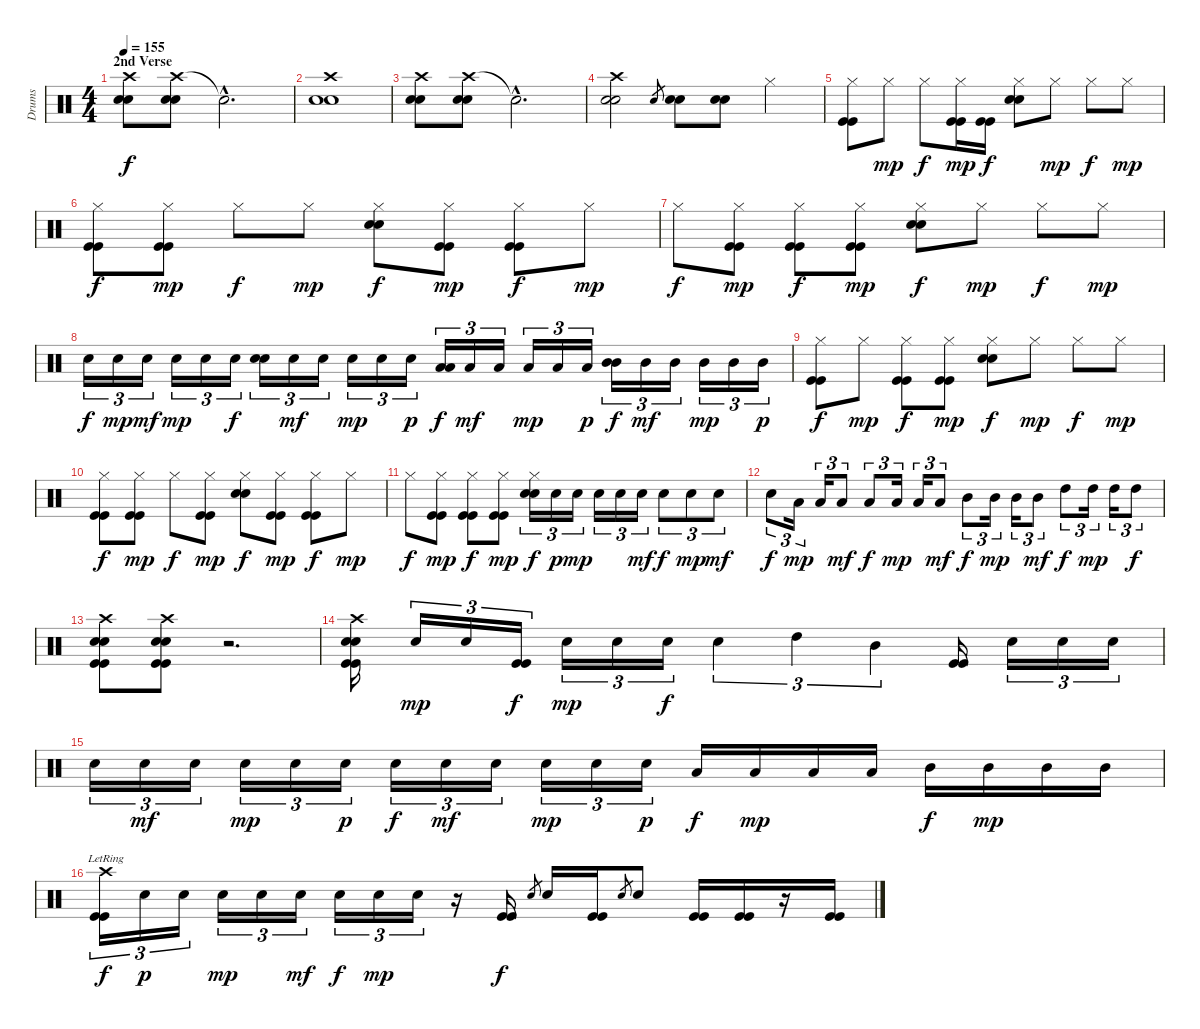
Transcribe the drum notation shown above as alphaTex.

\track ("Drums" "Drums") {instrument percussion}
\staff {score}
\articulation defaults
\ts (4 4)
\section ("" "2nd Verse")
\tempo 155
\clef neutral
\ks c
("Crash high (hit)" "Snare (hit) 2" "Snare (hit) 2").8{dy f} ("Crash high (hit)" "Snare (hit) 2" "Snare (hit) 2").8 "Snare (hit)"{hac t}.2{d} |
("Crash high (hit)" "Snare (hit) 2" "Snare (hit) 2").1 |
("Crash high (hit)" "Snare (hit) 2" "Snare (hit) 2").8 ("Crash high (hit)" "Snare (hit) 2" "Snare (hit) 2").8 "Snare (hit)"{hac t}.2{d} |
("Crash high (hit)" "Snare (hit) 2" "Snare (hit) 2").2 "Snare (hit) 2".8{gr} ("Snare (hit) 2" "Snare (hit) 2").8 ("Snare (hit) 2" "Snare (hit) 2").8 "Hi-Hat (closed)".4 |
("Hi-Hat (closed)" "Kick (hit)" "Kick (hit)").8 "Hi-Hat (closed)".8{dy mp} "Hi-Hat (closed)".8{dy f} ("Hi-Hat (closed)" "Kick (hit)" "Kick (hit)").16{dy mp} ("Kick (hit)" "Kick (hit)").16{dy f} ("Hi-Hat (closed)" "Snare (hit) 2" "Snare (hit) 2").8 "Hi-Hat (closed)".8{dy mp} "Hi-Hat (closed)".8{dy f} "Hi-Hat (closed)".8{dy mp} |
("Hi-Hat (closed)" "Kick (hit)" "Kick (hit)").8{dy f} ("Hi-Hat (closed)" "Kick (hit)" "Kick (hit)").8{dy mp} "Hi-Hat (closed)".8{dy f} "Hi-Hat (closed)".8{dy mp} ("Hi-Hat (closed)" "Snare (hit) 2" "Snare (hit) 2").8{dy f} ("Hi-Hat (closed)" "Kick (hit)" "Kick (hit)").8{dy mp} ("Hi-Hat (closed)" "Kick (hit)" "Kick (hit)").8{dy f} "Hi-Hat (closed)".8{dy mp} |
"Hi-Hat (closed)".8{dy f} ("Hi-Hat (closed)" "Kick (hit)" "Kick (hit)").8{dy mp} ("Hi-Hat (closed)" "Kick (hit)" "Kick (hit)").8{dy f} ("Hi-Hat (closed)" "Kick (hit)" "Kick (hit)").8{dy mp} ("Hi-Hat (closed)" "Snare (hit) 2" "Snare (hit) 2").8{dy f} "Hi-Hat (closed)".8{dy mp} "Hi-Hat (closed)".8{dy f} "Hi-Hat (closed)".8{dy mp} |
"Snare (hit) 2".16{tu (3 2) dy f} "Snare (hit) 2".16{tu (3 2) dy mp} "Snare (hit) 2".16{tu (3 2) dy mf} "Snare (hit) 2".16{tu (3 2) dy mp} "Snare (hit) 2".16{tu (3 2)} "Snare (hit) 2".16{tu (3 2) dy f} ("Snare (hit) 2" "Snare (hit) 2").16{tu (3 2)} "Snare (hit) 2".16{tu (3 2) dy mf} "Snare (hit) 2".16{tu (3 2)} "Snare (hit) 2".16{tu (3 2) dy mp} "Snare (hit) 2".16{tu (3 2)} "Snare (hit) 2".16{tu (3 2) dy p} ("Low Tom (hit)" "Low Tom (hit)").16{tu (3 2) dy f} "Low Tom (hit)".16{tu (3 2) dy mf} "Low Tom (hit)".16{tu (3 2)} "Low Tom (hit)".16{tu (3 2) dy mp} "Low Tom (hit)".16{tu (3 2)} "Low Tom (hit)".16{tu (3 2) dy p} ("Mid Tom (hit)" "Mid Tom (hit)").16{tu (3 2) dy f} "Mid Tom (hit)".16{tu (3 2) dy mf} "Mid Tom (hit)".16{tu (3 2)} "Mid Tom (hit)".16{tu (3 2) dy mp} "Mid Tom (hit)".16{tu (3 2)} "Mid Tom (hit)".16{tu (3 2) dy p} |
("Hi-Hat (closed)" "Kick (hit)" "Kick (hit)").8{dy f} "Hi-Hat (closed)".8{dy mp} ("Hi-Hat (closed)" "Kick (hit)" "Kick (hit)").8{dy f} ("Hi-Hat (closed)" "Kick (hit)" "Kick (hit)").8{dy mp} ("Hi-Hat (closed)" "Snare (hit) 2" "Snare (hit) 2").8{dy f} "Hi-Hat (closed)".8{dy mp} "Hi-Hat (closed)".8{dy f} "Hi-Hat (closed)".8{dy mp} |
("Hi-Hat (closed)" "Kick (hit)" "Kick (hit)").8{dy f} ("Hi-Hat (closed)" "Kick (hit)" "Kick (hit)").8{dy mp} "Hi-Hat (closed)".8{dy f} ("Hi-Hat (closed)" "Kick (hit)" "Kick (hit)").8{dy mp} ("Hi-Hat (closed)" "Snare (hit) 2" "Snare (hit) 2").8{dy f} ("Hi-Hat (closed)" "Kick (hit)" "Kick (hit)").8{dy mp} ("Hi-Hat (closed)" "Kick (hit)" "Kick (hit)").8{dy f} "Hi-Hat (closed)".8{dy mp} |
"Hi-Hat (closed)".8{dy f} ("Hi-Hat (closed)" "Kick (hit)" "Kick (hit)").8{dy mp} ("Hi-Hat (closed)" "Kick (hit)" "Kick (hit)").8{dy f} ("Hi-Hat (closed)" "Kick (hit)" "Kick (hit)").8{dy mp} ("Hi-Hat (closed)" "Snare (hit) 2" "Snare (hit) 2").16{tu (3 2) dy f} "Snare (hit) 2".16{tu (3 2) dy p} "Snare (hit) 2".16{tu (3 2) dy mp} "Snare (hit) 2".16{tu (3 2)} "Snare (hit) 2".16{tu (3 2)} "Snare (hit) 2".16{tu (3 2) dy mf} "Snare (hit) 2".8{tu (3 2) dy f} "Snare (hit) 2".8{tu (3 2) dy mp} "Snare (hit) 2".8{tu (3 2) dy mf} |
"Snare (hit) 2".8{tu (3 2) dy f} "Low Tom (hit)".16{tu (3 2) dy mp} "Low Tom (hit)".16{tu (3 2)} "Low Tom (hit)".8{tu (3 2) dy mf} "Low Tom (hit)".8{tu (3 2) dy f} "Low Tom (hit)".16{tu (3 2) dy mp} "Low Tom (hit)".16{tu (3 2)} "Low Tom (hit)".8{tu (3 2) dy mf} "Mid Tom (hit)".8{tu (3 2) dy f} "Mid Tom (hit)".16{tu (3 2) dy mp} "Mid Tom (hit)".16{tu (3 2)} "Mid Tom (hit)".8{tu (3 2) dy mf} "High Tom (hit)".8{tu (3 2) dy f} "High Tom (hit)".16{tu (3 2) dy mp} "High Tom (hit)".16{tu (3 2)} "High Tom (hit)".8{tu (3 2) dy f} |
("Crash high (hit)" "Snare (hit) 2" "Snare (hit) 2" "Kick (hit)" "Kick (hit)").8 ("Crash high (hit)" "Snare (hit) 2" "Snare (hit) 2" "Kick (hit)" "Kick (hit)").8 r.2{d} |
("Crash high (hit)" "Snare (hit) 2" "Snare (hit) 2" "Kick (hit)" "Kick (hit)").16 "Snare (hit) 2".16{tu (3 2) dy mp} "Snare (hit) 2".16{tu (3 2)} ("Kick (hit)" "Kick (hit)").16{tu (3 2) dy f} "Snare (hit) 2".16{tu (3 2) dy mp} "Snare (hit) 2".16{tu (3 2)} "Snare (hit) 2".16{tu (3 2) dy f} "Snare (hit) 2".4{tu (3 2)} "High Tom (hit)".4{tu (3 2)} "Mid Tom (hit)".4{tu (3 2)} ("Kick (hit)" "Kick (hit)").16 "Snare (hit) 2".16{tu (3 2)} "Snare (hit) 2".16{tu (3 2)} "Snare (hit) 2".16{tu (3 2)} |
"Snare (hit) 2".16{tu (3 2)} "Snare (hit) 2".16{tu (3 2) dy mf} "Snare (hit) 2".16{tu (3 2)} "Snare (hit) 2".16{tu (3 2) dy mp} "Snare (hit) 2".16{tu (3 2)} "Snare (hit) 2".16{tu (3 2) dy p} "Snare (hit) 2".16{tu (3 2) dy f} "Snare (hit) 2".16{tu (3 2) dy mf} "Snare (hit) 2".16{tu (3 2)} "Snare (hit) 2".16{tu (3 2) dy mp} "Snare (hit) 2".16{tu (3 2)} "Snare (hit) 2".16{tu (3 2) dy p} "Low Tom (hit)".16{dy f} "Low Tom (hit)".16{dy mp} "Low Tom (hit)".16 "Low Tom (hit)".16 "Mid Tom (hit)".16{dy f} "Mid Tom (hit)".16{dy mp} "Mid Tom (hit)".16 "Mid Tom (hit)".16 |
("Crash high (hit)"{lr} "Kick (hit)" "Kick (hit)").16{tu (3 2) dy f} "Snare (hit) 2".16{tu (3 2) dy p} "Snare (hit) 2".16{tu (3 2)} "Snare (hit) 2".16{tu (3 2) dy mp} "Snare (hit) 2".16{tu (3 2)} "Snare (hit) 2".16{tu (3 2) dy mf} "Snare (hit) 2".16{tu (3 2) dy f} "Snare (hit) 2".16{tu (3 2) dy mp} "Snare (hit) 2".16{tu (3 2)} r.16 ("Kick (hit)" "Kick (hit)").16{dy f} "Snare (hit) 2".8{gr} "Snare (hit) 2".16 ("Kick (hit)" "Kick (hit)").16 "Snare (hit) 2".8{gr} "Snare (hit) 2".8 ("Kick (hit)" "Kick (hit)").16 ("Kick (hit)" "Kick (hit)").16 r.16 ("Kick (hit)" "Kick (hit)").16
